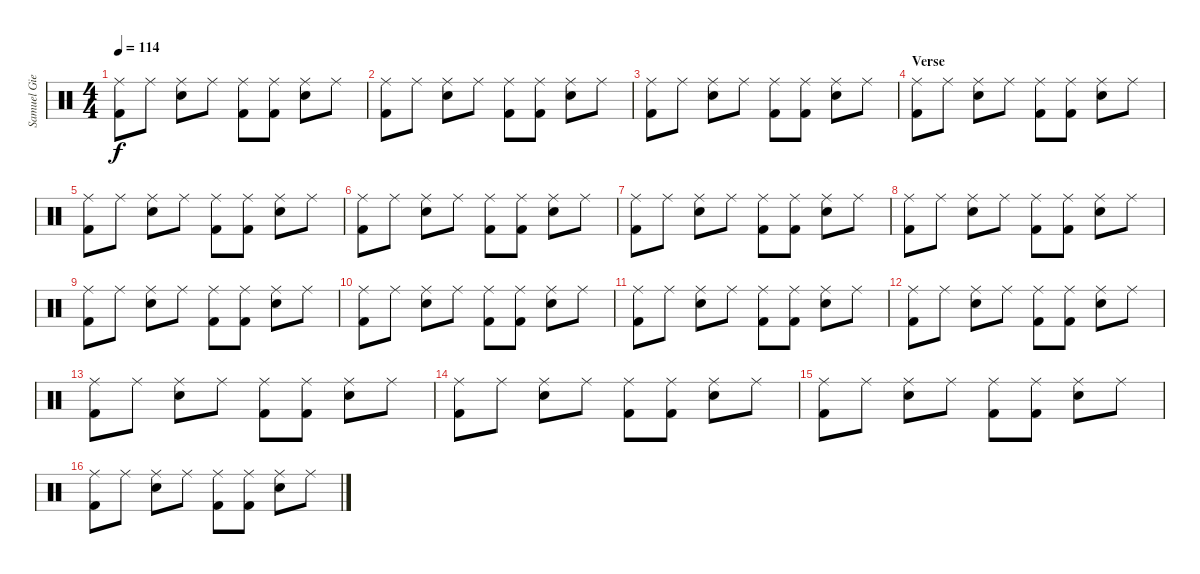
\track ("Samuel Giers - Drum" "Samuel Gie") {instrument percussion}
\staff {score}
\articulation defaults
\ts (4 4)
\tempo 114
\clef neutral
\ks c
("Ride (middle)" "Kick (hit) 2").8{dy f} "Ride (middle)".8 ("Ride (middle)" "Snare (hit) 2").8 "Ride (middle)".8 ("Ride (middle)" "Kick (hit) 2").8 ("Ride (middle)" "Kick (hit) 2").8 ("Ride (middle)" "Snare (hit) 2").8 "Ride (middle)".8 |
("Ride (middle)" "Kick (hit) 2").8 "Ride (middle)".8 ("Ride (middle)" "Snare (hit) 2").8 "Ride (middle)".8 ("Ride (middle)" "Kick (hit) 2").8 ("Ride (middle)" "Kick (hit) 2").8 ("Ride (middle)" "Snare (hit) 2").8 "Ride (middle)".8 |
("Ride (middle)" "Kick (hit) 2").8 "Ride (middle)".8 ("Ride (middle)" "Snare (hit) 2").8 "Ride (middle)".8 ("Ride (middle)" "Kick (hit) 2").8 ("Ride (middle)" "Kick (hit) 2").8 ("Ride (middle)" "Snare (hit) 2").8 "Ride (middle)".8 |
\section ("" "Verse")
("Ride (middle)" "Kick (hit) 2").8 "Ride (middle)".8 ("Ride (middle)" "Snare (hit) 2").8 "Ride (middle)".8 ("Ride (middle)" "Kick (hit) 2").8 ("Ride (middle)" "Kick (hit) 2").8 ("Ride (middle)" "Snare (hit) 2").8 "Ride (middle)".8 |
("Ride (middle)" "Kick (hit) 2").8 "Ride (middle)".8 ("Ride (middle)" "Snare (hit) 2").8 "Ride (middle)".8 ("Ride (middle)" "Kick (hit) 2").8 ("Ride (middle)" "Kick (hit) 2").8 ("Ride (middle)" "Snare (hit) 2").8 "Ride (middle)".8 |
("Ride (middle)" "Kick (hit) 2").8 "Ride (middle)".8 ("Ride (middle)" "Snare (hit) 2").8 "Ride (middle)".8 ("Ride (middle)" "Kick (hit) 2").8 ("Ride (middle)" "Kick (hit) 2").8 ("Ride (middle)" "Snare (hit) 2").8 "Ride (middle)".8 |
("Ride (middle)" "Kick (hit) 2").8 "Ride (middle)".8 ("Ride (middle)" "Snare (hit) 2").8 "Ride (middle)".8 ("Ride (middle)" "Kick (hit) 2").8 ("Ride (middle)" "Kick (hit) 2").8 ("Ride (middle)" "Snare (hit) 2").8 "Ride (middle)".8 |
("Ride (middle)" "Kick (hit) 2").8 "Ride (middle)".8 ("Ride (middle)" "Snare (hit) 2").8 "Ride (middle)".8 ("Ride (middle)" "Kick (hit) 2").8 ("Ride (middle)" "Kick (hit) 2").8 ("Ride (middle)" "Snare (hit) 2").8 "Ride (middle)".8 |
("Ride (middle)" "Kick (hit) 2").8 "Ride (middle)".8 ("Ride (middle)" "Snare (hit) 2").8 "Ride (middle)".8 ("Ride (middle)" "Kick (hit) 2").8 ("Ride (middle)" "Kick (hit) 2").8 ("Ride (middle)" "Snare (hit) 2").8 "Ride (middle)".8 |
("Ride (middle)" "Kick (hit) 2").8 "Ride (middle)".8 ("Ride (middle)" "Snare (hit) 2").8 "Ride (middle)".8 ("Ride (middle)" "Kick (hit) 2").8 ("Ride (middle)" "Kick (hit) 2").8 ("Ride (middle)" "Snare (hit) 2").8 "Ride (middle)".8 |
("Ride (middle)" "Kick (hit) 2").8 "Ride (middle)".8 ("Ride (middle)" "Snare (hit) 2").8 "Ride (middle)".8 ("Ride (middle)" "Kick (hit) 2").8 ("Ride (middle)" "Kick (hit) 2").8 ("Ride (middle)" "Snare (hit) 2").8 "Ride (middle)".8 |
("Ride (middle)" "Kick (hit) 2").8 "Ride (middle)".8 ("Ride (middle)" "Snare (hit) 2").8 "Ride (middle)".8 ("Ride (middle)" "Kick (hit) 2").8 ("Ride (middle)" "Kick (hit) 2").8 ("Ride (middle)" "Snare (hit) 2").8 "Ride (middle)".8 |
("Ride (middle)" "Kick (hit) 2").8 "Ride (middle)".8 ("Ride (middle)" "Snare (hit) 2").8 "Ride (middle)".8 ("Ride (middle)" "Kick (hit) 2").8 ("Ride (middle)" "Kick (hit) 2").8 ("Ride (middle)" "Snare (hit) 2").8 "Ride (middle)".8 |
("Ride (middle)" "Kick (hit) 2").8 "Ride (middle)".8 ("Ride (middle)" "Snare (hit) 2").8 "Ride (middle)".8 ("Ride (middle)" "Kick (hit) 2").8 ("Ride (middle)" "Kick (hit) 2").8 ("Ride (middle)" "Snare (hit) 2").8 "Ride (middle)".8 |
("Ride (middle)" "Kick (hit) 2").8 "Ride (middle)".8 ("Ride (middle)" "Snare (hit) 2").8 "Ride (middle)".8 ("Ride (middle)" "Kick (hit) 2").8 ("Ride (middle)" "Kick (hit) 2").8 ("Ride (middle)" "Snare (hit) 2").8 "Ride (middle)".8 |
("Ride (middle)" "Kick (hit) 2").8 "Ride (middle)".8 ("Ride (middle)" "Snare (hit) 2").8 "Ride (middle)".8 ("Ride (middle)" "Kick (hit) 2").8 ("Ride (middle)" "Kick (hit) 2").8 ("Ride (middle)" "Snare (hit) 2").8 "Ride (middle)".8
